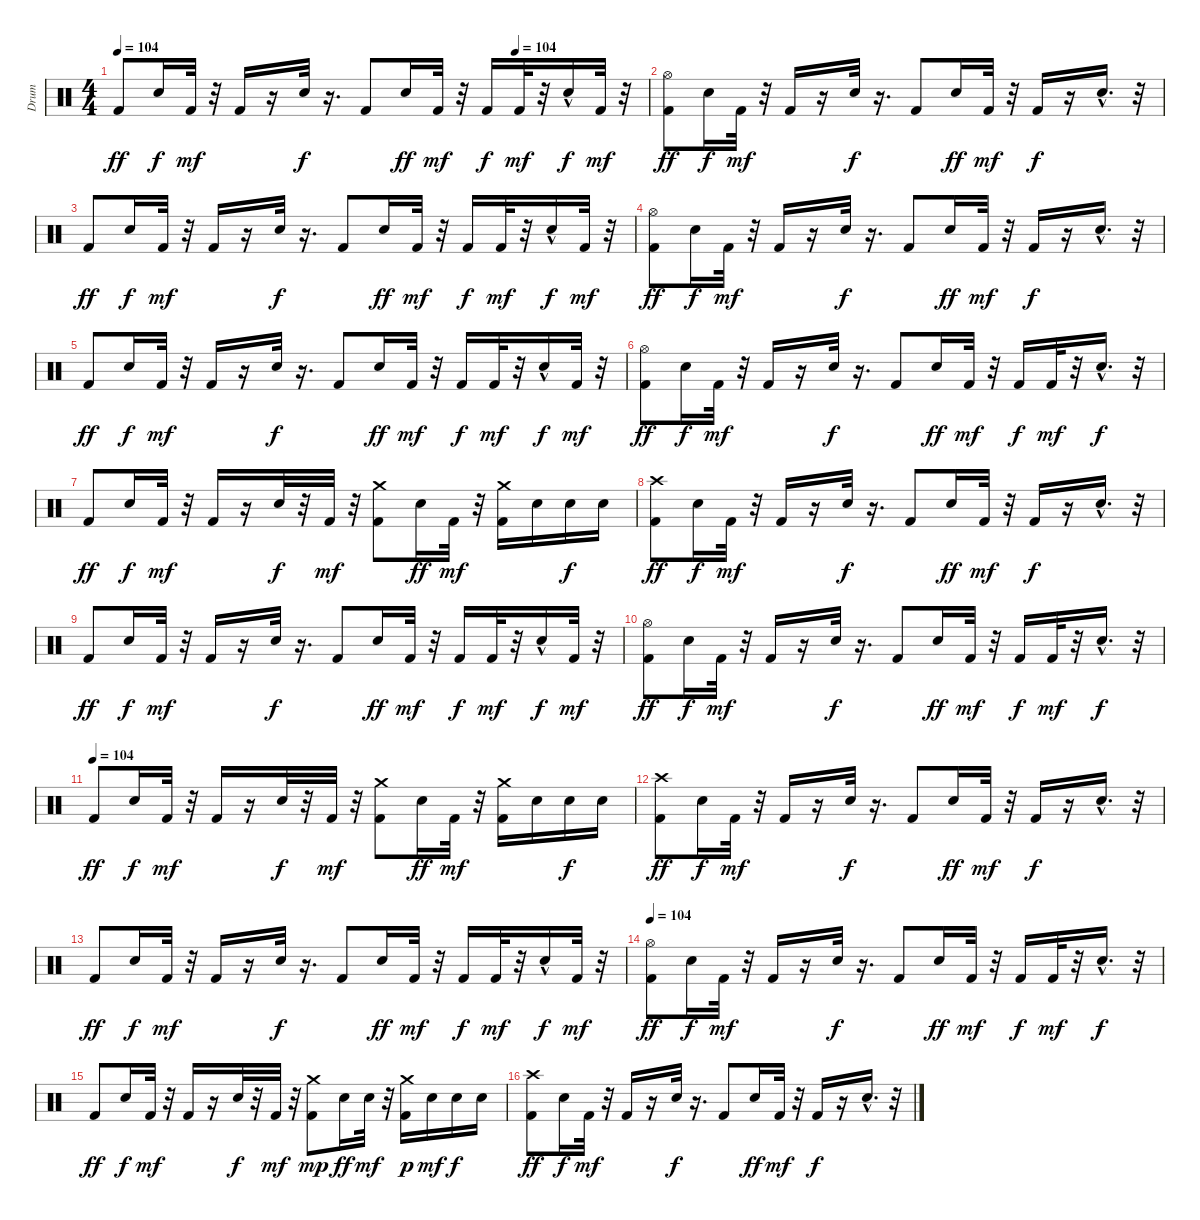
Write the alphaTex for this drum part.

\track ("Drum" "Drum") {instrument percussion}
\staff {score}
\articulation defaults
\ts (4 4)
\tempo 104
\tempo (104 0.75)
\clef neutral
\ks c "Kick (hit) 2".8{dy ff} "Electric Snare (hit)".16{dy f} "Kick (hit) 2".32{dy mf}
r.32 "Kick (hit) 2".16 r.16 "Electric Snare (hit)".32{dy f} r.16{d} "Kick (hit) 2".8 "Electric Snare (hit)".16{dy ff} "Kick (hit) 2".32{dy mf} r.32 "Kick (hit) 2".16{dy f} "Kick (hit) 2".32{dy mf} r.32 "Electric Snare (hit)"{hac}.16{dy f} "Kick (hit) 2".32{dy mf} r.32 |
("Hi-Hat (open)" "Kick (hit) 2").8{dy ff} "Electric Snare (hit)".16{dy f} "Kick (hit) 2".32{dy mf} r.32 "Kick (hit) 2".16 r.16 "Electric Snare (hit)".32{dy f} r.16{d} "Kick (hit) 2".8 "Electric Snare (hit)".16{dy ff} "Kick (hit) 2".32{dy mf} r.32 "Kick (hit) 2".16{dy f} r.16 "Electric Snare (hit)"{hac}.16{d} r.32 |
"Kick (hit) 2".8{dy ff} "Electric Snare (hit)".16{dy f} "Kick (hit) 2".32{dy mf} r.32 "Kick (hit) 2".16 r.16 "Electric Snare (hit)".32{dy f} r.16{d} "Kick (hit) 2".8 "Electric Snare (hit)".16{dy ff} "Kick (hit) 2".32{dy mf} r.32 "Kick (hit) 2".16{dy f} "Kick (hit) 2".32{dy mf} r.32 "Electric Snare (hit)"{hac}.16{dy f} "Kick (hit) 2".32{dy mf} r.32 |
("Hi-Hat (open)" "Kick (hit) 2").8{dy ff} "Electric Snare (hit)".16{dy f} "Kick (hit) 2".32{dy mf} r.32 "Kick (hit) 2".16 r.16 "Electric Snare (hit)".32{dy f} r.16{d} "Kick (hit) 2".8 "Electric Snare (hit)".16{dy ff} "Kick (hit) 2".32{dy mf} r.32 "Kick (hit) 2".16{dy f} r.16 "Electric Snare (hit)"{hac}.16{d} r.32 |
"Kick (hit) 2".8{dy ff} "Electric Snare (hit)".16{dy f} "Kick (hit) 2".32{dy mf} r.32 "Kick (hit) 2".16 r.16 "Electric Snare (hit)".32{dy f} r.16{d} "Kick (hit) 2".8 "Electric Snare (hit)".16{dy ff} "Kick (hit) 2".32{dy mf} r.32 "Kick (hit) 2".16{dy f} "Kick (hit) 2".32{dy mf} r.32 "Electric Snare (hit)"{hac}.16{dy f} "Kick (hit) 2".32{dy mf} r.32 |
("Hi-Hat (open)" "Kick (hit) 2").8{dy ff} "Electric Snare (hit)".16{dy f} "Kick (hit) 2".32{dy mf} r.32 "Kick (hit) 2".16 r.16 "Electric Snare (hit)".32{dy f} r.16{d} "Kick (hit) 2".8 "Electric Snare (hit)".16{dy ff} "Kick (hit) 2".32{dy mf} r.32 "Kick (hit) 2".16{dy f} "Kick (hit) 2".32{dy mf} r.32 "Electric Snare (hit)"{hac}.16{d dy f} r.32 |
"Kick (hit) 2".8{dy ff} "Electric Snare (hit)".16{dy f} "Kick (hit) 2".32{dy mf} r.32 "Kick (hit) 2".16 r.16 "Electric Snare (hit)".32{dy f} r.32 "Kick (hit) 2".32{dy mf} r.32 ("Crash medium (hit)" "Kick (hit) 2").8 "Electric Snare (hit)".16{dy ff} "Kick (hit) 2".32{dy mf} r.32 ("Crash medium (hit)" "Kick (hit) 2").16 "Electric Snare (hit)".16 "Electric Snare (hit)".16{dy f} "Electric Snare (hit)".16 |
("Crash high (hit)" "Kick (hit) 2").8{dy ff} "Electric Snare (hit)".16{dy f} "Kick (hit) 2".32{dy mf} r.32 "Kick (hit) 2".16 r.16 "Electric Snare (hit)".32{dy f} r.16{d} "Kick (hit) 2".8 "Electric Snare (hit)".16{dy ff} "Kick (hit) 2".32{dy mf} r.32 "Kick (hit) 2".16{dy f} r.16 "Electric Snare (hit)"{hac}.16{d} r.32 |
"Kick (hit) 2".8{dy ff} "Electric Snare (hit)".16{dy f} "Kick (hit) 2".32{dy mf} r.32 "Kick (hit) 2".16 r.16 "Electric Snare (hit)".32{dy f} r.16{d} "Kick (hit) 2".8 "Electric Snare (hit)".16{dy ff} "Kick (hit) 2".32{dy mf} r.32 "Kick (hit) 2".16{dy f} "Kick (hit) 2".32{dy mf} r.32 "Electric Snare (hit)"{hac}.16{dy f} "Kick (hit) 2".32{dy mf} r.32 |
("Hi-Hat (open)" "Kick (hit) 2").8{dy ff} "Electric Snare (hit)".16{dy f} "Kick (hit) 2".32{dy mf} r.32 "Kick (hit) 2".16 r.16 "Electric Snare (hit)".32{dy f} r.16{d} "Kick (hit) 2".8 "Electric Snare (hit)".16{dy ff} "Kick (hit) 2".32{dy mf} r.32 "Kick (hit) 2".16{dy f} "Kick (hit) 2".32{dy mf} r.32 "Electric Snare (hit)"{hac}.16{d dy f} r.32 |
\tempo (104)
"Kick (hit) 2".8{dy ff} "Electric Snare (hit)".16{dy f} "Kick (hit) 2".32{dy mf} r.32 "Kick (hit) 2".16 r.16 "Electric Snare (hit)".32{dy f} r.32 "Kick (hit) 2".32{dy mf} r.32 ("Crash medium (hit)" "Kick (hit) 2").8 "Electric Snare (hit)".16{dy ff} "Kick (hit) 2".32{dy mf} r.32 ("Crash medium (hit)" "Kick (hit) 2").16 "Electric Snare (hit)".16 "Electric Snare (hit)".16{dy f} "Electric Snare (hit)".16 |
("Crash high (hit)" "Kick (hit) 2").8{dy ff} "Electric Snare (hit)".16{dy f} "Kick (hit) 2".32{dy mf} r.32 "Kick (hit) 2".16 r.16 "Electric Snare (hit)".32{dy f} r.16{d} "Kick (hit) 2".8 "Electric Snare (hit)".16{dy ff} "Kick (hit) 2".32{dy mf} r.32 "Kick (hit) 2".16{dy f} r.16 "Electric Snare (hit)"{hac}.16{d} r.32 |
"Kick (hit) 2".8{dy ff} "Electric Snare (hit)".16{dy f} "Kick (hit) 2".32{dy mf} r.32 "Kick (hit) 2".16 r.16 "Electric Snare (hit)".32{dy f} r.16{d} "Kick (hit) 2".8 "Electric Snare (hit)".16{dy ff} "Kick (hit) 2".32{dy mf} r.32 "Kick (hit) 2".16{dy f} "Kick (hit) 2".32{dy mf} r.32 "Electric Snare (hit)"{hac}.16{dy f} "Kick (hit) 2".32{dy mf} r.32 |
\tempo 104
("Hi-Hat (open)" "Kick (hit) 2").8{dy ff} "Electric Snare (hit)".16{dy f} "Kick (hit) 2".32{dy mf} r.32 "Kick (hit) 2".16 r.16 "Electric Snare (hit)".32{dy f} r.16{d} "Kick (hit) 2".8 "Electric Snare (hit)".16{dy ff} "Kick (hit) 2".32{dy mf} r.32 "Kick (hit) 2".16{dy f} "Kick (hit) 2".32{dy mf} r.32 "Electric Snare (hit)"{hac}.16{d dy f} r.32 |
"Kick (hit) 2".8{dy ff} "Electric Snare (hit)".16{dy f} "Kick (hit) 2".32{dy mf} r.32 "Kick (hit) 2".16 r.16 "Electric Snare (hit)".32{dy f} r.32 "Kick (hit) 2".32{dy mf} r.32 ("Crash medium (hit)" "Kick (hit) 2").8{dy mp} "Electric Snare (hit)".16{dy ff} "Electric Snare (hit)".32{dy mf} r.32 ("Crash medium (hit)" "Kick (hit) 2").16{dy p} "Electric Snare (hit)".16{dy mf} "Electric Snare (hit)".16{dy f} "Electric Snare (hit)".16 |
("Crash high (hit)" "Kick (hit) 2").8{dy ff} "Electric Snare (hit)".16{dy f} "Kick (hit) 2".32{dy mf} r.32 "Kick (hit) 2".16 r.16 "Electric Snare (hit)".32{dy f} r.16{d} "Kick (hit) 2".8 "Electric Snare (hit)".16{dy ff} "Kick (hit) 2".32{dy mf} r.32 "Kick (hit) 2".16{dy f} r.16 "Electric Snare (hit)"{hac}.16{d} r.32
